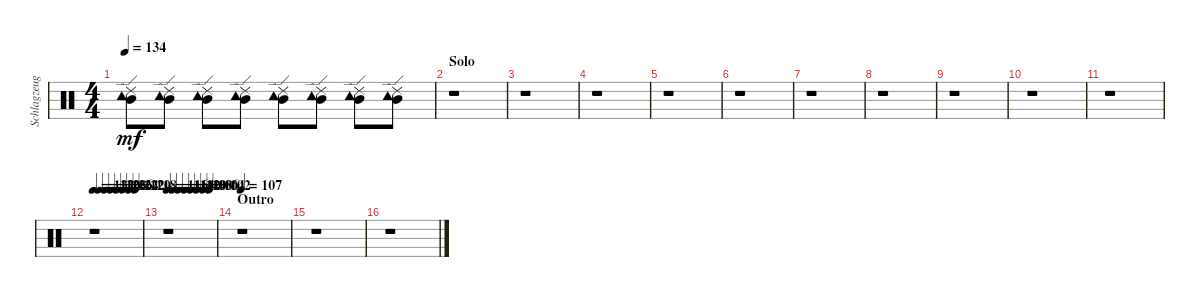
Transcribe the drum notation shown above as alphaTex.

\track ("Schlagzeug - Bela B." "Schlagzeug") {instrument percussion}
\staff {score}
\articulation defaults
\ts (4 4)
\tempo 134
\clef neutral
\ks c
("Mid Tom (hit)" "Tambourine (hit)" "Ride (edge) 2").8{dy mf} ("Mid Tom (hit)" "Tambourine (hit)" "Ride (edge) 2").8 ("Mid Tom (hit)" "Tambourine (hit)" "Ride (edge) 2").8 ("Mid Tom (hit)" "Tambourine (hit)" "Ride (edge) 2").8 ("Mid Tom (hit)" "Tambourine (hit)" "Ride (edge) 2").8 ("Mid Tom (hit)" "Tambourine (hit)" "Ride (edge) 2").8 ("Mid Tom (hit)" "Tambourine (hit)" "Ride (edge) 2").8 ("Mid Tom (hit)" "Tambourine (hit)" "Ride (edge) 2").8 |
\section ("" "Solo")
r.1 |
r.1 |
r.1 |
r.1 |
r.1 |
r.1 |
r.1 |
r.1 |
r.1 |
r.1 |
\tempo 132
\tempo (130 0.125)
\tempo (128 0.25)
\tempo (126 0.375)
\tempo (124 0.5)
\tempo (122 0.625)
\tempo (120 0.75)
\tempo (118 0.875)
r.1 |
\tempo 116
\tempo (114 0.125)
\tempo (112 0.25)
\tempo (110 0.375)
\tempo (108 0.5)
\tempo (106 0.625)
\tempo (104 0.75)
\tempo (102 0.875)
r.1 |
\section ("" "Outro")
\tempo 107
r.1 |
r.1 |
r.1
